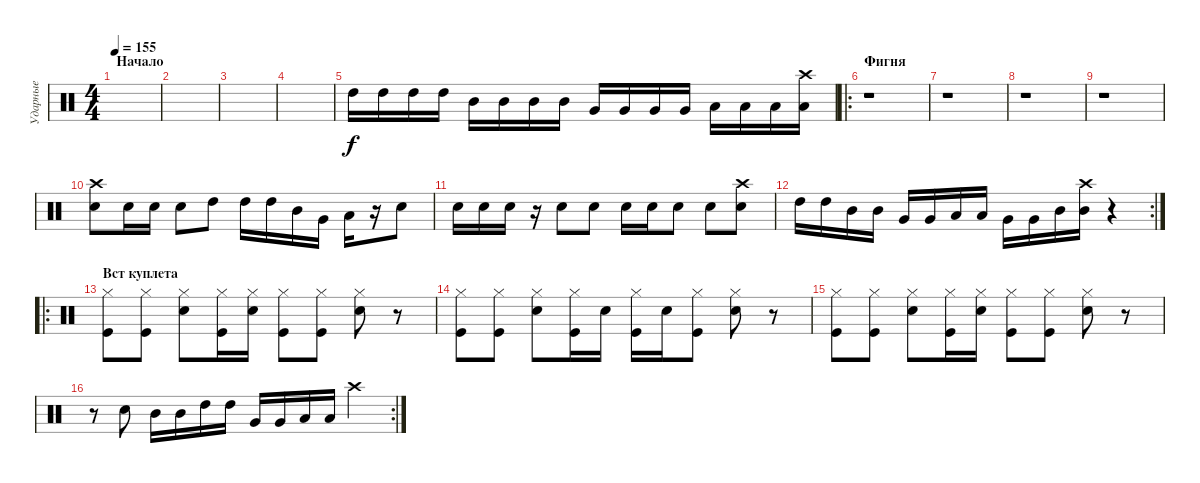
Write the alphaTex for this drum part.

\track ("Ударные" "Ударные") {instrument percussion}
\staff {score}
\articulation defaults
\ts (4 4)
\section ("" "Начало")
\tempo 155
\clef neutral
\ks c
|
|
|
|
"High Tom (hit)".16 "High Tom (hit)".16 "High Tom (hit)".16 "High Tom (hit)".16 "Mid Tom (hit)".16 "Mid Tom (hit)".16 "Mid Tom (hit)".16 "Mid Tom (hit)".16 "Very Low Tom (hit)".16 "Very Low Tom (hit)".16 "Very Low Tom (hit)".16 "Very Low Tom (hit)".16 "Low Floor Tom (hit)".16 "Low Floor Tom (hit)".16 "Low Floor Tom (hit)".16 ("Crash high (hit)" "Low Floor Tom (hit)").16 |
\ro
\section ("" "Фигня")
r.1 |
r.1 |
r.1 |
r.1 |
("Crash high (hit)" "Snare (hit) 2").8 "Snare (hit) 2".16 "Snare (hit) 2".16 "Snare (hit) 2".8 "High Tom (hit)".8 "High Tom (hit)".16 "High Tom (hit)".16 "Mid Tom (hit)".16 "Very Low Tom (hit)".16 "Low Floor Tom (hit)".16 r.16 "Snare (hit) 2".8 |
"Snare (hit) 2".16 "Snare (hit) 2".16 "Snare (hit) 2".16 r.16 "Snare (hit) 2".8 "Snare (hit) 2".8 "Snare (hit) 2".16 "Snare (hit) 2".16 "Snare (hit) 2".8 "Snare (hit) 2".8 ("Crash high (hit)" "Snare (hit) 2").8 |
\rc 2 "High Tom (hit)".16 "High Tom (hit)".16 "Mid Tom (hit)".16 "Mid Tom (hit)".16 "Very Low Tom (hit)".16 "Very Low Tom (hit)".16 "Low Floor Tom (hit)".16 "Low Floor Tom (hit)".16 "Very Low Tom (hit)".16 "Very Low Tom (hit)".16 "Mid Tom (hit)".16
("Crash high (hit)" "Mid Tom (hit)").16 r.4 |
\ro
\section ("" "Вст куплета")
("Hi-Hat (closed)" "Kick (hit)").8 ("Hi-Hat (closed)" "Kick (hit)").8 ("Hi-Hat (closed)" "Snare (hit) 2").8 ("Hi-Hat (closed)" "Kick (hit)").16 ("Hi-Hat (closed)" "Snare (hit) 2").16 ("Hi-Hat (closed)" "Kick (hit)").8 ("Hi-Hat (closed)" "Kick (hit)").8 ("Hi-Hat (closed)" "Snare (hit) 2").8 r.8 |
("Hi-Hat (closed)" "Kick (hit)").8 ("Hi-Hat (closed)" "Kick (hit)").8 ("Hi-Hat (closed)" "Snare (hit) 2").8 ("Hi-Hat (closed)" "Kick (hit)").16 "Snare (hit) 2".16 ("Hi-Hat (closed)" "Kick (hit)").16 "Snare (hit) 2".16 ("Hi-Hat (closed)" "Kick (hit)").8 ("Hi-Hat (closed)" "Snare (hit) 2").8 r.8 |
("Hi-Hat (closed)" "Kick (hit)").8 ("Hi-Hat (closed)" "Kick (hit)").8 ("Hi-Hat (closed)" "Snare (hit) 2").8 ("Hi-Hat (closed)" "Kick (hit)").16 ("Hi-Hat (closed)" "Snare (hit) 2").16 ("Hi-Hat (closed)" "Kick (hit)").8 ("Hi-Hat (closed)" "Kick (hit)").8 ("Hi-Hat (closed)" "Snare (hit) 2").8 r.8 |
\rc 2
r.8 "Snare (hit) 2".8 "Mid Tom (hit)".16 "Mid Tom (hit)".16 "High Tom (hit)".16 "High Tom (hit)".16 "Very Low Tom (hit)".16 "Very Low Tom (hit)".16 "Low Floor Tom (hit)".16 "Low Floor Tom (hit)".16 "Crash high (hit)".4
